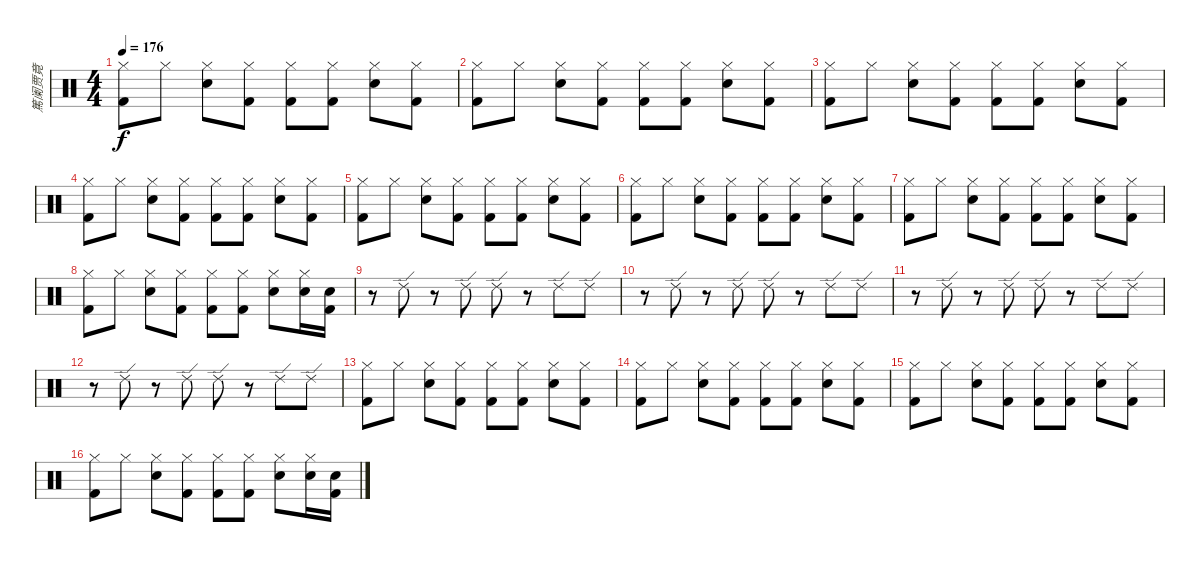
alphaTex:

\track ("篤阑贾竟" "篤阑贾竟") {instrument percussion}
\staff {score}
\articulation defaults
\ts (4 4)
\tempo 176
\clef neutral
\ks c
("Hi-Hat (closed)" "Kick (hit) 2").8{dy f} "Hi-Hat (closed)".8 ("Hi-Hat (closed)" "Snare (hit) 2").8 ("Hi-Hat (closed)" "Kick (hit) 2").8 ("Hi-Hat (closed)" "Kick (hit) 2").8 ("Hi-Hat (closed)" "Kick (hit) 2").8 ("Hi-Hat (closed)" "Snare (hit) 2").8 ("Hi-Hat (closed)" "Kick (hit) 2").8 |
("Hi-Hat (closed)" "Kick (hit) 2").8 "Hi-Hat (closed)".8 ("Hi-Hat (closed)" "Snare (hit) 2").8 ("Hi-Hat (closed)" "Kick (hit) 2").8 ("Hi-Hat (closed)" "Kick (hit) 2").8 ("Hi-Hat (closed)" "Kick (hit) 2").8 ("Hi-Hat (closed)" "Snare (hit) 2").8 ("Hi-Hat (closed)" "Kick (hit) 2").8 |
("Hi-Hat (closed)" "Kick (hit) 2").8 "Hi-Hat (closed)".8 ("Hi-Hat (closed)" "Snare (hit) 2").8 ("Hi-Hat (closed)" "Kick (hit) 2").8 ("Hi-Hat (closed)" "Kick (hit) 2").8 ("Hi-Hat (closed)" "Kick (hit) 2").8 ("Hi-Hat (closed)" "Snare (hit) 2").8 ("Hi-Hat (closed)" "Kick (hit) 2").8 |
("Hi-Hat (closed)" "Kick (hit) 2").8 "Hi-Hat (closed)".8 ("Hi-Hat (closed)" "Snare (hit) 2").8 ("Hi-Hat (closed)" "Kick (hit) 2").8 ("Hi-Hat (closed)" "Kick (hit) 2").8 ("Hi-Hat (closed)" "Kick (hit) 2").8 ("Hi-Hat (closed)" "Snare (hit) 2").8 ("Hi-Hat (closed)" "Kick (hit) 2").8 |
("Hi-Hat (closed)" "Kick (hit) 2").8 "Hi-Hat (closed)".8 ("Hi-Hat (closed)" "Snare (hit) 2").8 ("Hi-Hat (closed)" "Kick (hit) 2").8 ("Hi-Hat (closed)" "Kick (hit) 2").8 ("Hi-Hat (closed)" "Kick (hit) 2").8 ("Hi-Hat (closed)" "Snare (hit) 2").8 ("Hi-Hat (closed)" "Kick (hit) 2").8 |
("Hi-Hat (closed)" "Kick (hit) 2").8 "Hi-Hat (closed)".8 ("Hi-Hat (closed)" "Snare (hit) 2").8 ("Hi-Hat (closed)" "Kick (hit) 2").8 ("Hi-Hat (closed)" "Kick (hit) 2").8 ("Hi-Hat (closed)" "Kick (hit) 2").8 ("Hi-Hat (closed)" "Snare (hit) 2").8 ("Hi-Hat (closed)" "Kick (hit) 2").8 |
("Hi-Hat (closed)" "Kick (hit) 2").8 "Hi-Hat (closed)".8 ("Hi-Hat (closed)" "Snare (hit) 2").8 ("Hi-Hat (closed)" "Kick (hit) 2").8 ("Hi-Hat (closed)" "Kick (hit) 2").8 ("Hi-Hat (closed)" "Kick (hit) 2").8 ("Hi-Hat (closed)" "Snare (hit) 2").8 ("Hi-Hat (closed)" "Kick (hit) 2").8 |
("Hi-Hat (closed)" "Kick (hit) 2").8 "Hi-Hat (closed)".8 ("Hi-Hat (closed)" "Snare (hit) 2").8 ("Hi-Hat (closed)" "Kick (hit) 2").8 ("Hi-Hat (closed)" "Kick (hit) 2").8 ("Hi-Hat (closed)" "Kick (hit) 2").8 ("Hi-Hat (closed)" "Snare (hit) 2").8 ("Hi-Hat (closed)" "Snare (hit) 2").16 ("Snare (hit) 2" "Kick (hit) 2").16 |
r.8 "Ride (edge) 2".8 r.8 "Ride (edge) 2".8 "Ride (edge) 2".8 r.8 "Ride (edge) 2".8 "Ride (edge) 2".8 |
r.8 "Ride (edge) 2".8 r.8 "Ride (edge) 2".8 "Ride (edge) 2".8 r.8 "Ride (edge) 2".8 "Ride (edge) 2".8 |
r.8 "Ride (edge) 2".8 r.8 "Ride (edge) 2".8 "Ride (edge) 2".8 r.8 "Ride (edge) 2".8 "Ride (edge) 2".8 |
r.8 "Ride (edge) 2".8 r.8 "Ride (edge) 2".8 "Ride (edge) 2".8 r.8 "Ride (edge) 2".8 "Ride (edge) 2".8 |
("Hi-Hat (closed)" "Kick (hit) 2").8 "Hi-Hat (closed)".8 ("Hi-Hat (closed)" "Snare (hit) 2").8 ("Hi-Hat (closed)" "Kick (hit) 2").8 ("Hi-Hat (closed)" "Kick (hit) 2").8 ("Hi-Hat (closed)" "Kick (hit) 2").8 ("Hi-Hat (closed)" "Snare (hit) 2").8 ("Hi-Hat (closed)" "Kick (hit) 2").8 |
("Hi-Hat (closed)" "Kick (hit) 2").8 "Hi-Hat (closed)".8 ("Hi-Hat (closed)" "Snare (hit) 2").8 ("Hi-Hat (closed)" "Kick (hit) 2").8 ("Hi-Hat (closed)" "Kick (hit) 2").8 ("Hi-Hat (closed)" "Kick (hit) 2").8 ("Hi-Hat (closed)" "Snare (hit) 2").8 ("Hi-Hat (closed)" "Kick (hit) 2").8 |
("Hi-Hat (closed)" "Kick (hit) 2").8 "Hi-Hat (closed)".8 ("Hi-Hat (closed)" "Snare (hit) 2").8 ("Hi-Hat (closed)" "Kick (hit) 2").8 ("Hi-Hat (closed)" "Kick (hit) 2").8 ("Hi-Hat (closed)" "Kick (hit) 2").8 ("Hi-Hat (closed)" "Snare (hit) 2").8 ("Hi-Hat (closed)" "Kick (hit) 2").8 |
("Hi-Hat (closed)" "Kick (hit) 2").8 "Hi-Hat (closed)".8 ("Hi-Hat (closed)" "Snare (hit) 2").8 ("Hi-Hat (closed)" "Kick (hit) 2").8 ("Hi-Hat (closed)" "Kick (hit) 2").8 ("Hi-Hat (closed)" "Kick (hit) 2").8 ("Hi-Hat (closed)" "Snare (hit) 2").8 ("Hi-Hat (closed)" "Snare (hit) 2").16 ("Snare (hit) 2" "Kick (hit) 2").16
